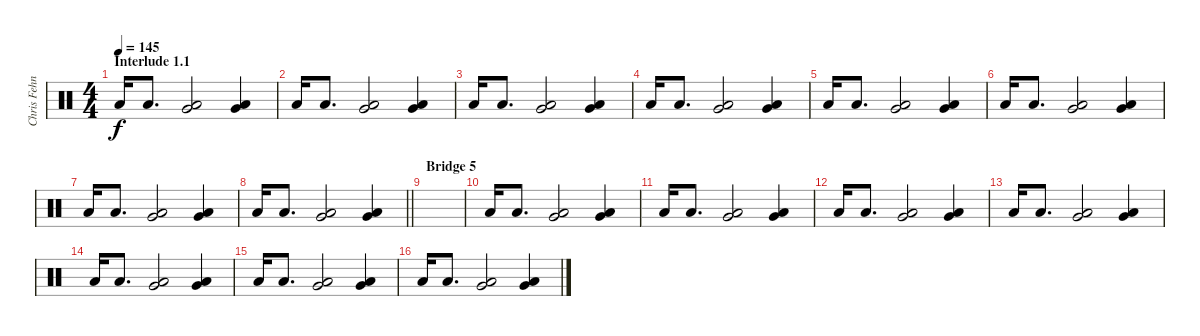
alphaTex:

\track ("Chris Fehn" "Chris Fehn") {instrument percussion}
\staff {score}
\articulation defaults
\ts (4 4)
\section ("" "Interlude 1.1")
\tempo 145
\clef neutral
\ks c "Low Floor Tom (hit)".16{dy f} "Low Floor Tom (hit)".8{d}
("Very Low Tom (hit)" "Low Floor Tom (hit)").2 ("Very Low Tom (hit)" "Low Floor Tom (hit)").4 |
"Low Floor Tom (hit)".16 "Low Floor Tom (hit)".8{d} ("Very Low Tom (hit)" "Low Floor Tom (hit)").2 ("Very Low Tom (hit)" "Low Floor Tom (hit)").4 |
"Low Floor Tom (hit)".16 "Low Floor Tom (hit)".8{d} ("Very Low Tom (hit)" "Low Floor Tom (hit)").2 ("Very Low Tom (hit)" "Low Floor Tom (hit)").4 |
"Low Floor Tom (hit)".16 "Low Floor Tom (hit)".8{d} ("Very Low Tom (hit)" "Low Floor Tom (hit)").2 ("Very Low Tom (hit)" "Low Floor Tom (hit)").4 |
"Low Floor Tom (hit)".16 "Low Floor Tom (hit)".8{d} ("Very Low Tom (hit)" "Low Floor Tom (hit)").2 ("Very Low Tom (hit)" "Low Floor Tom (hit)").4 |
"Low Floor Tom (hit)".16 "Low Floor Tom (hit)".8{d} ("Very Low Tom (hit)" "Low Floor Tom (hit)").2 ("Very Low Tom (hit)" "Low Floor Tom (hit)").4 |
"Low Floor Tom (hit)".16 "Low Floor Tom (hit)".8{d} ("Very Low Tom (hit)" "Low Floor Tom (hit)").2 ("Very Low Tom (hit)" "Low Floor Tom (hit)").4 |
\barLineRight lightlight "Low Floor Tom (hit)".16 "Low Floor Tom (hit)".8{d}
("Very Low Tom (hit)" "Low Floor Tom (hit)").2 ("Very Low Tom (hit)" "Low Floor Tom (hit)").4 |
\section ("" "Bridge 5")
|
"Low Floor Tom (hit)".16 "Low Floor Tom (hit)".8{d} ("Very Low Tom (hit)" "Low Floor Tom (hit)").2 ("Very Low Tom (hit)" "Low Floor Tom (hit)").4 |
"Low Floor Tom (hit)".16 "Low Floor Tom (hit)".8{d} ("Very Low Tom (hit)" "Low Floor Tom (hit)").2 ("Very Low Tom (hit)" "Low Floor Tom (hit)").4 |
"Low Floor Tom (hit)".16 "Low Floor Tom (hit)".8{d} ("Very Low Tom (hit)" "Low Floor Tom (hit)").2 ("Very Low Tom (hit)" "Low Floor Tom (hit)").4 |
"Low Floor Tom (hit)".16 "Low Floor Tom (hit)".8{d} ("Very Low Tom (hit)" "Low Floor Tom (hit)").2 ("Very Low Tom (hit)" "Low Floor Tom (hit)").4 |
"Low Floor Tom (hit)".16 "Low Floor Tom (hit)".8{d} ("Very Low Tom (hit)" "Low Floor Tom (hit)").2 ("Very Low Tom (hit)" "Low Floor Tom (hit)").4 |
"Low Floor Tom (hit)".16 "Low Floor Tom (hit)".8{d} ("Very Low Tom (hit)" "Low Floor Tom (hit)").2 ("Very Low Tom (hit)" "Low Floor Tom (hit)").4 |
"Low Floor Tom (hit)".16 "Low Floor Tom (hit)".8{d} ("Very Low Tom (hit)" "Low Floor Tom (hit)").2 ("Very Low Tom (hit)" "Low Floor Tom (hit)").4
